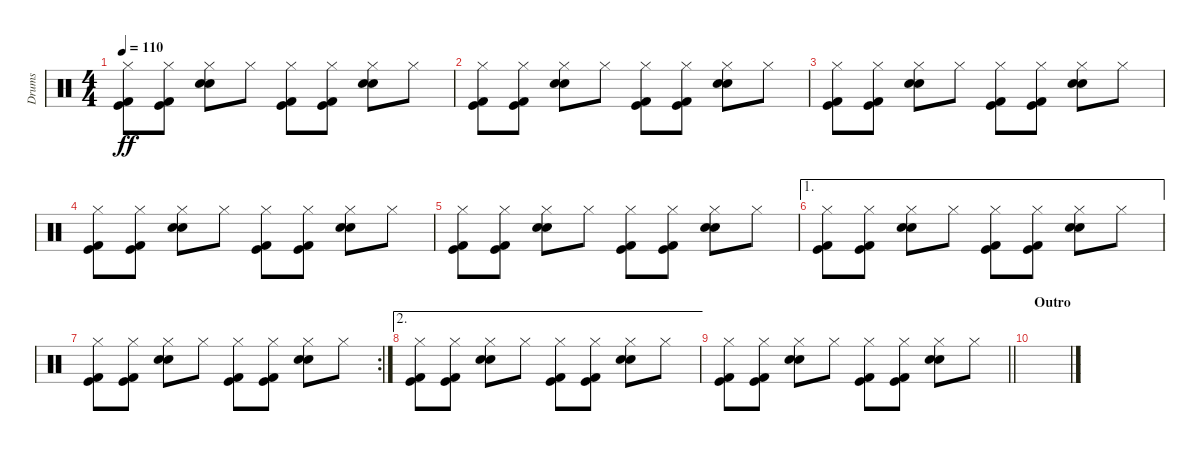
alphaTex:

\track ("Drums" "Drums") {instrument percussion}
\staff {score}
\articulation defaults
\ts (4 4)
\tempo 110
\clef neutral
\ks c
("Hi-Hat (closed)" "Kick (hit)" "Kick (hit) 2").8{dy ff} ("Hi-Hat (closed)" "Kick (hit)" "Kick (hit) 2").8 ("Hi-Hat (closed)" "Electric Snare (hit)" "Snare (hit) 2").8 "Hi-Hat (closed)".8 ("Hi-Hat (closed)" "Kick (hit)" "Kick (hit) 2").8 ("Hi-Hat (closed)" "Kick (hit)" "Kick (hit) 2").8 ("Hi-Hat (closed)" "Electric Snare (hit)" "Snare (hit) 2").8 "Hi-Hat (closed)".8 |
("Hi-Hat (closed)" "Kick (hit)" "Kick (hit) 2").8 ("Hi-Hat (closed)" "Kick (hit)" "Kick (hit) 2").8 ("Hi-Hat (closed)" "Electric Snare (hit)" "Snare (hit) 2").8 "Hi-Hat (closed)".8 ("Hi-Hat (closed)" "Kick (hit)" "Kick (hit) 2").8 ("Hi-Hat (closed)" "Kick (hit)" "Kick (hit) 2").8 ("Hi-Hat (closed)" "Electric Snare (hit)" "Snare (hit) 2").8 "Hi-Hat (closed)".8 |
("Hi-Hat (closed)" "Kick (hit)" "Kick (hit) 2").8 ("Hi-Hat (closed)" "Kick (hit)" "Kick (hit) 2").8 ("Hi-Hat (closed)" "Electric Snare (hit)" "Snare (hit) 2").8 "Hi-Hat (closed)".8 ("Hi-Hat (closed)" "Kick (hit)" "Kick (hit) 2").8 ("Hi-Hat (closed)" "Kick (hit)" "Kick (hit) 2").8 ("Hi-Hat (closed)" "Electric Snare (hit)" "Snare (hit) 2").8 "Hi-Hat (closed)".8 |
("Hi-Hat (closed)" "Kick (hit)" "Kick (hit) 2").8 ("Hi-Hat (closed)" "Kick (hit)" "Kick (hit) 2").8 ("Hi-Hat (closed)" "Electric Snare (hit)" "Snare (hit) 2").8 "Hi-Hat (closed)".8 ("Hi-Hat (closed)" "Kick (hit)" "Kick (hit) 2").8 ("Hi-Hat (closed)" "Kick (hit)" "Kick (hit) 2").8 ("Hi-Hat (closed)" "Electric Snare (hit)" "Snare (hit) 2").8 "Hi-Hat (closed)".8 |
("Hi-Hat (closed)" "Kick (hit)" "Kick (hit) 2").8 ("Hi-Hat (closed)" "Kick (hit)" "Kick (hit) 2").8 ("Hi-Hat (closed)" "Electric Snare (hit)" "Snare (hit) 2").8 "Hi-Hat (closed)".8 ("Hi-Hat (closed)" "Kick (hit)" "Kick (hit) 2").8 ("Hi-Hat (closed)" "Kick (hit)" "Kick (hit) 2").8 ("Hi-Hat (closed)" "Electric Snare (hit)" "Snare (hit) 2").8 "Hi-Hat (closed)".8 |
\ae 1
("Hi-Hat (closed)" "Kick (hit)" "Kick (hit) 2").8 ("Hi-Hat (closed)" "Kick (hit)" "Kick (hit) 2").8 ("Hi-Hat (closed)" "Electric Snare (hit)" "Snare (hit) 2").8 "Hi-Hat (closed)".8 ("Hi-Hat (closed)" "Kick (hit)" "Kick (hit) 2").8 ("Hi-Hat (closed)" "Kick (hit)" "Kick (hit) 2").8 ("Hi-Hat (closed)" "Electric Snare (hit)" "Snare (hit) 2").8 "Hi-Hat (closed)".8 |
\rc 2
("Hi-Hat (closed)" "Kick (hit)" "Kick (hit) 2").8 ("Hi-Hat (closed)" "Kick (hit)" "Kick (hit) 2").8 ("Hi-Hat (closed)" "Electric Snare (hit)" "Snare (hit) 2").8 "Hi-Hat (closed)".8 ("Hi-Hat (closed)" "Kick (hit)" "Kick (hit) 2").8 ("Hi-Hat (closed)" "Kick (hit)" "Kick (hit) 2").8 ("Hi-Hat (closed)" "Electric Snare (hit)" "Snare (hit) 2").8 "Hi-Hat (closed)".8 |
\ae 2
("Hi-Hat (closed)" "Kick (hit)" "Kick (hit) 2").8 ("Hi-Hat (closed)" "Kick (hit)" "Kick (hit) 2").8 ("Hi-Hat (closed)" "Electric Snare (hit)" "Snare (hit) 2").8 "Hi-Hat (closed)".8 ("Hi-Hat (closed)" "Kick (hit)" "Kick (hit) 2").8 ("Hi-Hat (closed)" "Kick (hit)" "Kick (hit) 2").8 ("Hi-Hat (closed)" "Electric Snare (hit)" "Snare (hit) 2").8 "Hi-Hat (closed)".8 |
\barLineRight lightlight
("Hi-Hat (closed)" "Kick (hit)" "Kick (hit) 2").8 ("Hi-Hat (closed)" "Kick (hit)" "Kick (hit) 2").8 ("Hi-Hat (closed)" "Electric Snare (hit)" "Snare (hit) 2").8 "Hi-Hat (closed)".8 ("Hi-Hat (closed)" "Kick (hit)" "Kick (hit) 2").8 ("Hi-Hat (closed)" "Kick (hit)" "Kick (hit) 2").8 ("Hi-Hat (closed)" "Electric Snare (hit)" "Snare (hit) 2").8 "Hi-Hat (closed)".8 |
\section ("" "Outro")
